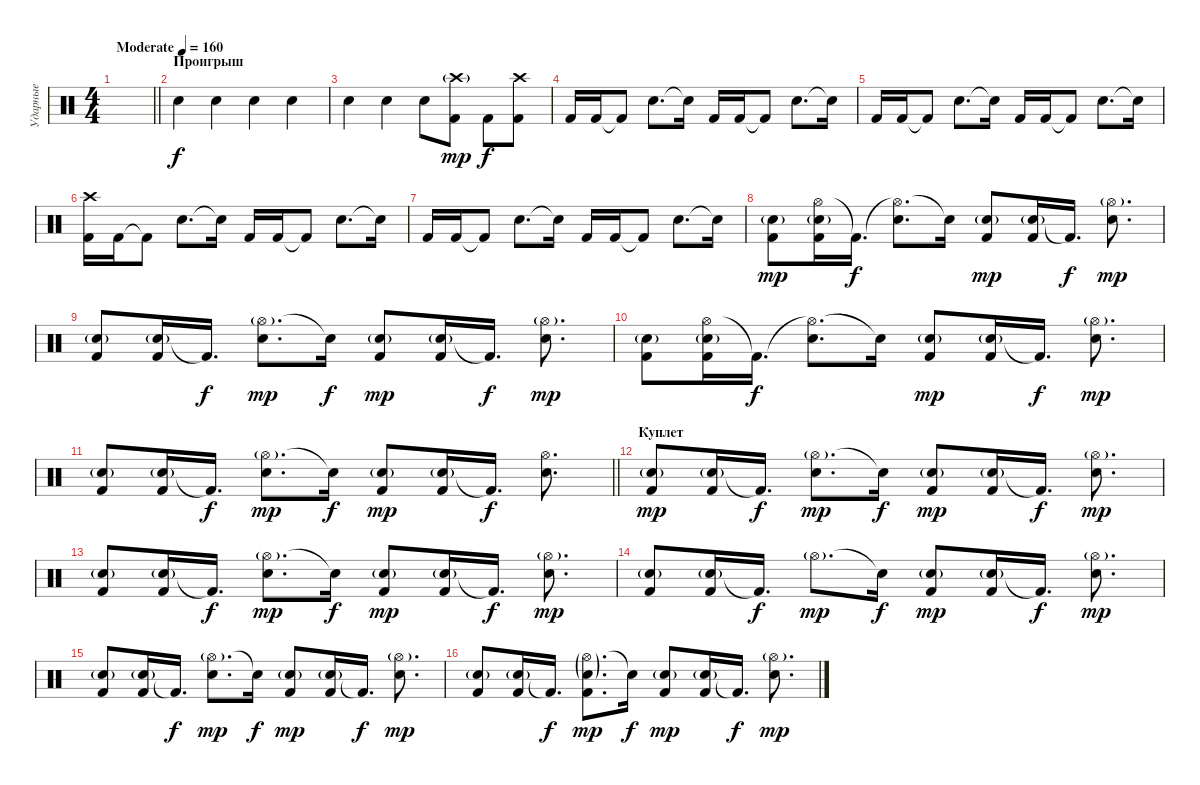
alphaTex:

\track ("Ударные" "Ударные") {instrument percussion}
\staff {score}
\articulation defaults
\ts (4 4)
\tempo (160 "Moderate")
\clef neutral
\barLineRight lightlight
\ks c
|
\section ("" "Проигрыш")
"Electric Snare (hit)".4 "Electric Snare (hit)".4 "Electric Snare (hit)".4 "Electric Snare (hit)".4 |
"Electric Snare (hit)".4 "Electric Snare (hit)".4 "Electric Snare (hit)".8 ("Crash high (hit)"{g} "Kick (hit) 2").8{dy mp} "Kick (hit) 2".8{dy f} ("Crash high (hit)" "Kick (hit) 2").8 |
"Kick (hit) 2".16 "Kick (hit) 2".16 "Kick (hit) 2"{t}.8 "Electric Snare (hit)".8{d} "Snare (hit)"{t}.16 "Kick (hit) 2".16 "Kick (hit) 2".16 "Kick (hit) 2"{t}.8 "Electric Snare (hit)".8{d} "Snare (hit)"{t}.16 |
"Kick (hit) 2".16 "Kick (hit) 2".16 "Kick (hit) 2"{t}.8 "Electric Snare (hit)".8{d} "Snare (hit)"{t}.16 "Kick (hit) 2".16 "Kick (hit) 2".16 "Kick (hit) 2"{t}.8 "Electric Snare (hit)".8{d} "Snare (hit)"{t}.16 |
("Crash high (hit)" "Kick (hit) 2").16 "Kick (hit) 2".16 "Kick (hit) 2"{t}.8 "Electric Snare (hit)".8{d} "Snare (hit)"{t}.16 "Kick (hit) 2".16 "Kick (hit) 2".16 "Kick (hit) 2"{t}.8 "Electric Snare (hit)".8{d} "Snare (hit)"{t}.16 |
"Kick (hit) 2".16 "Kick (hit) 2".16 "Kick (hit) 2"{t}.8 "Electric Snare (hit)".8{d} "Snare (hit)"{t}.16 "Kick (hit) 2".16 "Kick (hit) 2".16 "Kick (hit) 2"{t}.8 "Electric Snare (hit)".8{d} "Snare (hit)"{t}.16 |
("Snare (hit) 2"{g} "Kick (hit) 2").8{dy mp} ("Hi-Hat (open)" "Snare (hit) 2"{g} "Kick (hit) 2").16 "Kick (hit) 2"{t}.16{d dy f} ("Hi-Hat (open)"{t} "Snare (hit) 2").8{d} "Electric Snare (hit)"{t}.16 ("Snare (hit) 2"{g} "Kick (hit) 2").8{dy mp} ("Snare (hit) 2"{g} "Kick (hit) 2").16 "Kick (hit) 2"{t}.16{d dy f} ("Hi-Hat (open)"{g} "Snare (hit) 2").8{d dy mp} |
("Snare (hit) 2"{g} "Kick (hit) 2").8 ("Snare (hit) 2"{g} "Kick (hit) 2").16 "Kick (hit) 2"{t}.16{d dy f} ("Hi-Hat (open)"{g} "Snare (hit) 2").8{d dy mp} "Electric Snare (hit)"{t}.16{dy f} ("Snare (hit) 2"{g} "Kick (hit) 2").8{dy mp} ("Snare (hit) 2"{g} "Kick (hit) 2").16 "Kick (hit) 2"{t}.16{d dy f} ("Hi-Hat (open)"{g} "Electric Snare (hit)").8{d dy mp} |
("Snare (hit) 2"{g} "Kick (hit) 2").8 ("Hi-Hat (open)" "Snare (hit) 2"{g} "Kick (hit) 2").16 "Kick (hit) 2"{t}.16{d dy f} ("Hi-Hat (open)"{t} "Snare (hit) 2").8{d} "Electric Snare (hit)"{t}.16 ("Snare (hit) 2"{g} "Kick (hit) 2").8{dy mp} ("Snare (hit) 2"{g} "Kick (hit) 2").16 "Kick (hit) 2"{t}.16{d dy f} ("Hi-Hat (open)"{g} "Snare (hit) 2").8{d dy mp} |
\barLineRight lightlight
("Snare (hit) 2"{g} "Kick (hit) 2").8 ("Snare (hit) 2"{g} "Kick (hit) 2").16 "Kick (hit) 2"{t}.16{d dy f} ("Hi-Hat (open)"{g} "Snare (hit) 2").8{d dy mp} "Electric Snare (hit)"{t}.16{dy f} ("Snare (hit) 2"{g} "Kick (hit) 2").8{dy mp} ("Snare (hit) 2"{g} "Kick (hit) 2").16 "Kick (hit) 2"{t}.16{d dy f} ("Hi-Hat (open)" "Electric Snare (hit)").8{d} |
\section ("" "Куплет")
("Snare (hit) 2"{g} "Kick (hit) 2").8{dy mp} ("Snare (hit) 2"{g} "Kick (hit) 2").16 "Kick (hit) 2"{t}.16{d dy f} ("Hi-Hat (open)"{g} "Snare (hit) 2").8{d dy mp} "Electric Snare (hit)"{t}.16{dy f} ("Snare (hit) 2"{g} "Kick (hit) 2").8{dy mp} ("Snare (hit) 2"{g} "Kick (hit) 2").16 "Kick (hit) 2"{t}.16{d dy f} ("Hi-Hat (open)"{g} "Electric Snare (hit)").8{d dy mp} |
("Snare (hit) 2"{g} "Kick (hit) 2").8 ("Snare (hit) 2"{g} "Kick (hit) 2").16 "Kick (hit) 2"{t}.16{d dy f} ("Hi-Hat (open)"{g} "Snare (hit) 2").8{d dy mp} "Electric Snare (hit)"{t}.16{dy f} ("Snare (hit) 2"{g} "Kick (hit) 2").8{dy mp} ("Snare (hit) 2"{g} "Kick (hit) 2").16 "Kick (hit) 2"{t}.16{d dy f} ("Hi-Hat (open)"{g} "Electric Snare (hit)").8{d dy mp} |
("Snare (hit) 2"{g} "Kick (hit) 2").8 ("Snare (hit) 2"{g} "Kick (hit) 2").16 "Kick (hit) 2"{t}.16{d dy f} "Hi-Hat (open)"{g}.8{d dy mp} "Electric Snare (hit)"{t}.16{dy f} ("Snare (hit) 2"{g} "Kick (hit) 2").8{dy mp} ("Snare (hit) 2"{g} "Kick (hit) 2").16 "Kick (hit) 2"{t}.16{d dy f} ("Hi-Hat (open)"{g} "Electric Snare (hit)").8{d dy mp} |
("Snare (hit) 2"{g} "Kick (hit) 2").8 ("Snare (hit) 2"{g} "Kick (hit) 2").16 "Kick (hit) 2"{t}.16{d dy f} ("Hi-Hat (open)"{g} "Snare (hit) 2").8{d dy mp} "Electric Snare (hit)"{t}.16{dy f} ("Snare (hit) 2"{g} "Kick (hit) 2").8{dy mp} ("Snare (hit) 2"{g} "Kick (hit) 2").16 "Kick (hit) 2"{t}.16{d dy f} ("Hi-Hat (open)"{g} "Electric Snare (hit)").8{d dy mp} |
("Snare (hit) 2"{g} "Kick (hit) 2").8 ("Snare (hit) 2"{g} "Kick (hit) 2").16 "Kick (hit) 2"{t}.16{d dy f} ("Hi-Hat (open)"{g} "Kick (hit) 2" "Snare (hit) 2"{g}).8{d dy mp} "Electric Snare (hit)"{t}.16{dy f} ("Snare (hit) 2"{g} "Kick (hit) 2").8{dy mp} ("Snare (hit) 2"{g} "Kick (hit) 2").16 "Kick (hit) 2"{t}.16{d dy f} ("Hi-Hat (open)"{g} "Electric Snare (hit)").8{d dy mp}
